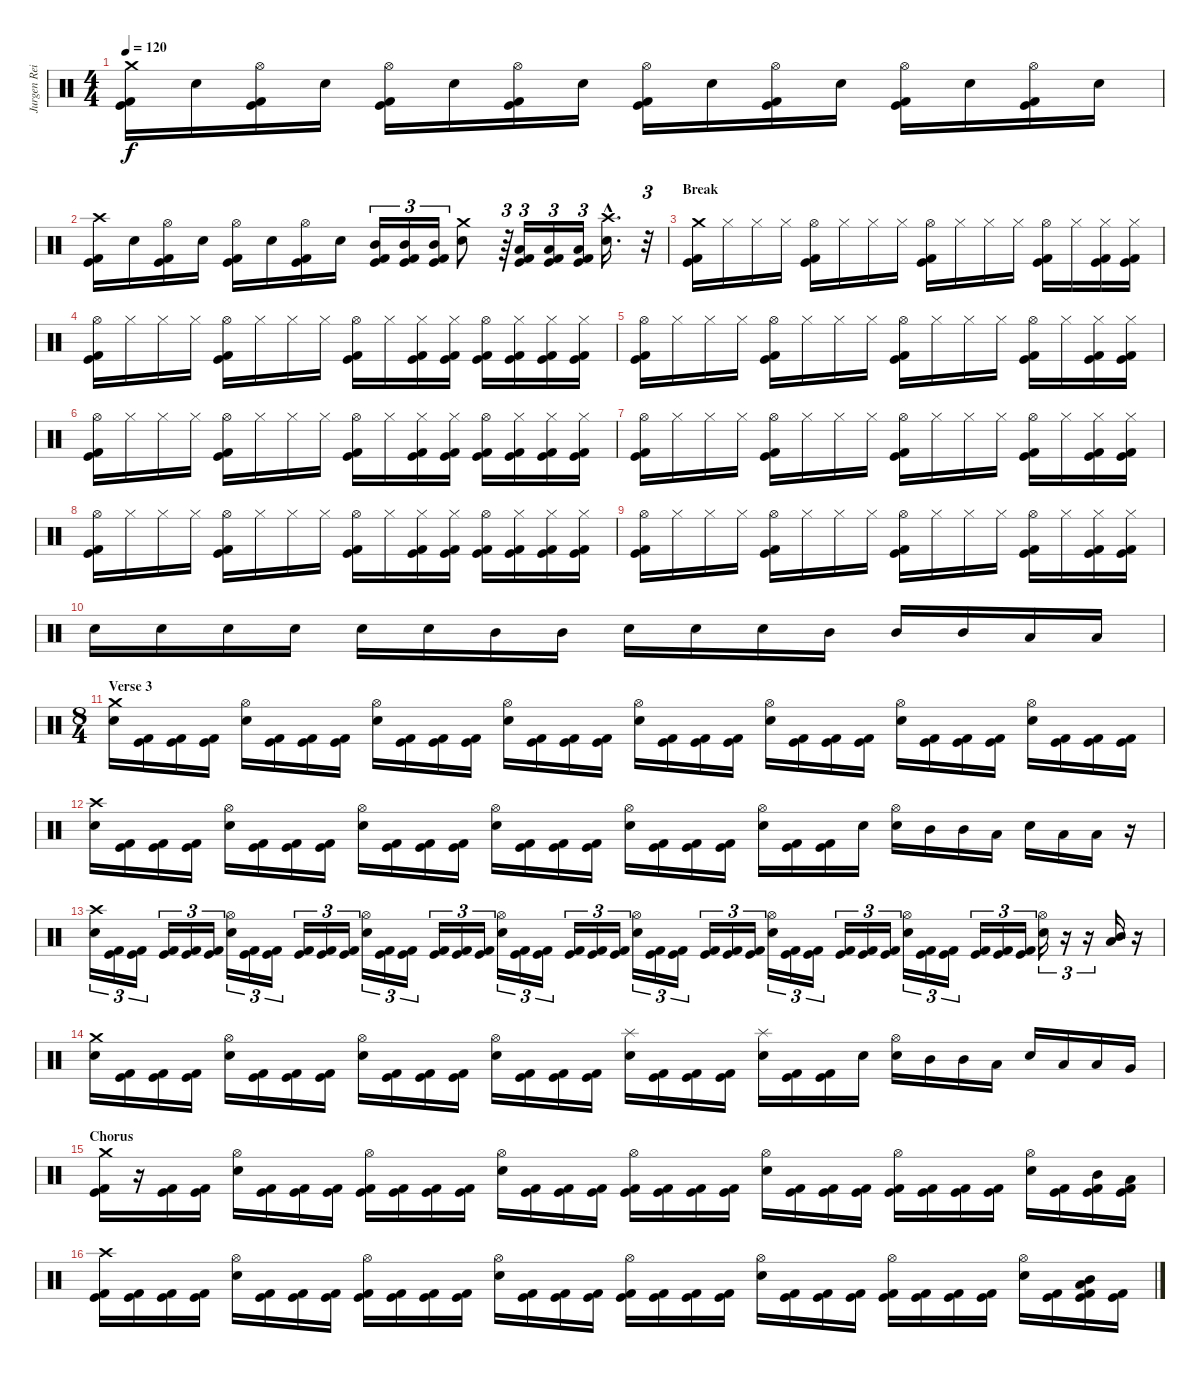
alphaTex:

\track ("Jurgen Reil" "Jurgen Rei") {instrument percussion}
\staff {score}
\articulation defaults
\ts (4 4)
\tempo 120
\clef neutral
\ks c
("Crash medium (hit)" "Kick (hit)" "Kick (hit) 2").16{dy f} "Electric Snare (hit)".16 ("Hi-Hat (open)" "Kick (hit)" "Kick (hit) 2").16 "Electric Snare (hit)".16 ("Hi-Hat (open)" "Kick (hit)" "Kick (hit) 2").16 "Electric Snare (hit)".16 ("Hi-Hat (open)" "Kick (hit)" "Kick (hit) 2").16 "Electric Snare (hit)".16 ("Hi-Hat (open)" "Kick (hit)" "Kick (hit) 2").16 "Electric Snare (hit)".16 ("Hi-Hat (open)" "Kick (hit)" "Kick (hit) 2").16 "Electric Snare (hit)".16 ("Hi-Hat (open)" "Kick (hit)" "Kick (hit) 2").16 "Electric Snare (hit)".16 ("Hi-Hat (open)" "Kick (hit)" "Kick (hit) 2").16 "Electric Snare (hit)".16 |
("Crash high (hit)" "Kick (hit)" "Kick (hit) 2").16 "Electric Snare (hit)".16 ("Hi-Hat (open)" "Kick (hit)" "Kick (hit) 2").16 "Electric Snare (hit)".16 ("Hi-Hat (open)" "Kick (hit)" "Kick (hit) 2").16 "Electric Snare (hit)".16 ("Hi-Hat (open)" "Kick (hit)" "Kick (hit) 2").16 "Electric Snare (hit)".16 ("Mid Tom (hit)" "Kick (hit)" "Kick (hit) 2").16{tu (3 2)} ("Mid Tom (hit)" "Kick (hit)" "Kick (hit) 2").16{tu (3 2)} ("Mid Tom (hit)" "Kick (hit)" "Kick (hit) 2").16{tu (3 2)} ("Crash medium (hit)" "Electric Snare (hit)").8 r.64{tu (3 2)} ("Low Tom (hit)" "Kick (hit)" "Kick (hit) 2").16{tu (3 2)} ("Low Tom (hit)" "Kick (hit)" "Kick (hit) 2").16{tu (3 2)} ("Low Tom (hit)" "Kick (hit)" "Kick (hit) 2").16{tu (3 2)} ("Crash high (hit)"{hac} "Electric Snare (hit)"{hac}).16{d} r.32{tu (3 2)} |
\section ("" "Break")
("Crash medium (hit)" "Kick (hit)" "Kick (hit) 2").16 "Hi-Hat (closed)".16 "Hi-Hat (closed)".16 "Hi-Hat (closed)".16 ("Hi-Hat (open)" "Kick (hit)" "Kick (hit) 2").16 "Hi-Hat (closed)".16 "Hi-Hat (closed)".16 "Hi-Hat (closed)".16 ("Hi-Hat (open)" "Kick (hit)" "Kick (hit) 2").16 "Hi-Hat (closed)".16 "Hi-Hat (closed)".16 "Hi-Hat (closed)".16 ("Hi-Hat (open)" "Kick (hit)" "Kick (hit) 2").16 "Hi-Hat (closed)".16 ("Hi-Hat (closed)" "Kick (hit)" "Kick (hit) 2").16 ("Hi-Hat (closed)" "Kick (hit)" "Kick (hit) 2").16 |
("Hi-Hat (open)" "Kick (hit)" "Kick (hit) 2").16 "Hi-Hat (closed)".16 "Hi-Hat (closed)".16 "Hi-Hat (closed)".16 ("Hi-Hat (open)" "Kick (hit)" "Kick (hit) 2").16 "Hi-Hat (closed)".16 "Hi-Hat (closed)".16 "Hi-Hat (closed)".16 ("Hi-Hat (open)" "Kick (hit)" "Kick (hit) 2").16 "Hi-Hat (closed)".16 ("Hi-Hat (closed)" "Kick (hit)" "Kick (hit) 2").16 ("Hi-Hat (closed)" "Kick (hit)" "Kick (hit) 2").16 ("Hi-Hat (open)" "Kick (hit)" "Kick (hit) 2").16 ("Hi-Hat (closed)" "Kick (hit)" "Kick (hit) 2").16 ("Hi-Hat (closed)" "Kick (hit)" "Kick (hit) 2").16 ("Hi-Hat (closed)" "Kick (hit)" "Kick (hit) 2").16 |
("Hi-Hat (open)" "Kick (hit)" "Kick (hit) 2").16 "Hi-Hat (closed)".16 "Hi-Hat (closed)".16 "Hi-Hat (closed)".16 ("Hi-Hat (open)" "Kick (hit)" "Kick (hit) 2").16 "Hi-Hat (closed)".16 "Hi-Hat (closed)".16 "Hi-Hat (closed)".16 ("Hi-Hat (open)" "Kick (hit)" "Kick (hit) 2").16 "Hi-Hat (closed)".16 "Hi-Hat (closed)".16 "Hi-Hat (closed)".16 ("Hi-Hat (open)" "Kick (hit)" "Kick (hit) 2").16 "Hi-Hat (closed)".16 ("Hi-Hat (closed)" "Kick (hit)" "Kick (hit) 2").16 ("Hi-Hat (closed)" "Kick (hit)" "Kick (hit) 2").16 |
("Hi-Hat (open)" "Kick (hit)" "Kick (hit) 2").16 "Hi-Hat (closed)".16 "Hi-Hat (closed)".16 "Hi-Hat (closed)".16 ("Hi-Hat (open)" "Kick (hit)" "Kick (hit) 2").16 "Hi-Hat (closed)".16 "Hi-Hat (closed)".16 "Hi-Hat (closed)".16 ("Hi-Hat (open)" "Kick (hit)" "Kick (hit) 2").16 "Hi-Hat (closed)".16 ("Hi-Hat (closed)" "Kick (hit)" "Kick (hit) 2").16 ("Hi-Hat (closed)" "Kick (hit)" "Kick (hit) 2").16 ("Hi-Hat (open)" "Kick (hit)" "Kick (hit) 2").16 ("Hi-Hat (closed)" "Kick (hit)" "Kick (hit) 2").16 ("Hi-Hat (closed)" "Kick (hit)" "Kick (hit) 2").16 ("Hi-Hat (closed)" "Kick (hit)" "Kick (hit) 2").16 |
("Hi-Hat (open)" "Kick (hit)" "Kick (hit) 2").16 "Hi-Hat (closed)".16 "Hi-Hat (closed)".16 "Hi-Hat (closed)".16 ("Hi-Hat (open)" "Kick (hit)" "Kick (hit) 2").16 "Hi-Hat (closed)".16 "Hi-Hat (closed)".16 "Hi-Hat (closed)".16 ("Hi-Hat (open)" "Kick (hit)" "Kick (hit) 2").16 "Hi-Hat (closed)".16 "Hi-Hat (closed)".16 "Hi-Hat (closed)".16 ("Hi-Hat (open)" "Kick (hit)" "Kick (hit) 2").16 "Hi-Hat (closed)".16 ("Hi-Hat (closed)" "Kick (hit)" "Kick (hit) 2").16 ("Hi-Hat (closed)" "Kick (hit)" "Kick (hit) 2").16 |
("Hi-Hat (open)" "Kick (hit)" "Kick (hit) 2").16 "Hi-Hat (closed)".16 "Hi-Hat (closed)".16 "Hi-Hat (closed)".16 ("Hi-Hat (open)" "Kick (hit)" "Kick (hit) 2").16 "Hi-Hat (closed)".16 "Hi-Hat (closed)".16 "Hi-Hat (closed)".16 ("Hi-Hat (open)" "Kick (hit)" "Kick (hit) 2").16 "Hi-Hat (closed)".16 ("Hi-Hat (closed)" "Kick (hit)" "Kick (hit) 2").16 ("Hi-Hat (closed)" "Kick (hit)" "Kick (hit) 2").16 ("Hi-Hat (open)" "Kick (hit)" "Kick (hit) 2").16 ("Hi-Hat (closed)" "Kick (hit)" "Kick (hit) 2").16 ("Hi-Hat (closed)" "Kick (hit)" "Kick (hit) 2").16 ("Hi-Hat (closed)" "Kick (hit)" "Kick (hit) 2").16 |
("Hi-Hat (open)" "Kick (hit)" "Kick (hit) 2").16 "Hi-Hat (closed)".16 "Hi-Hat (closed)".16 "Hi-Hat (closed)".16 ("Hi-Hat (open)" "Kick (hit)" "Kick (hit) 2").16 "Hi-Hat (closed)".16 "Hi-Hat (closed)".16 "Hi-Hat (closed)".16 ("Hi-Hat (open)" "Kick (hit)" "Kick (hit) 2").16 "Hi-Hat (closed)".16 "Hi-Hat (closed)".16 "Hi-Hat (closed)".16 ("Hi-Hat (open)" "Kick (hit)" "Kick (hit) 2").16 "Hi-Hat (closed)".16 ("Hi-Hat (closed)" "Kick (hit)" "Kick (hit) 2").16 ("Hi-Hat (closed)" "Kick (hit)" "Kick (hit) 2").16 |
"Electric Snare (hit)".16 "Electric Snare (hit)".16 "Electric Snare (hit)".16 "Electric Snare (hit)".16 "Electric Snare (hit)".16 "Electric Snare (hit)".16 "Mid Tom (hit)".16 "Mid Tom (hit)".16 "Electric Snare (hit)".16 "Electric Snare (hit)".16 "Electric Snare (hit)".16 "Mid Tom (hit)".16 "Mid Tom (hit)".16 "Mid Tom (hit)".16 "Low Tom (hit)".16 "Low Tom (hit)".16 |
\ts (8 4)
\section ("" "Verse 3")
("Crash medium (hit)" "Electric Snare (hit)").16 ("Kick (hit)" "Kick (hit) 2").16 ("Kick (hit)" "Kick (hit) 2").16 ("Kick (hit)" "Kick (hit) 2").16 ("Hi-Hat (open)" "Electric Snare (hit)").16 ("Kick (hit)" "Kick (hit) 2").16 ("Kick (hit)" "Kick (hit) 2").16 ("Kick (hit)" "Kick (hit) 2").16 ("Hi-Hat (open)" "Electric Snare (hit)").16 ("Kick (hit)" "Kick (hit) 2").16 ("Kick (hit)" "Kick (hit) 2").16 ("Kick (hit)" "Kick (hit) 2").16 ("Hi-Hat (open)" "Electric Snare (hit)").16 ("Kick (hit)" "Kick (hit) 2").16 ("Kick (hit)" "Kick (hit) 2").16 ("Kick (hit)" "Kick (hit) 2").16 ("Hi-Hat (open)" "Electric Snare (hit)").16 ("Kick (hit)" "Kick (hit) 2").16 ("Kick (hit)" "Kick (hit) 2").16 ("Kick (hit)" "Kick (hit) 2").16 ("Hi-Hat (open)" "Electric Snare (hit)").16 ("Kick (hit)" "Kick (hit) 2").16 ("Kick (hit)" "Kick (hit) 2").16 ("Kick (hit)" "Kick (hit) 2").16 ("Hi-Hat (open)" "Electric Snare (hit)").16 ("Kick (hit)" "Kick (hit) 2").16 ("Kick (hit)" "Kick (hit) 2").16 ("Kick (hit)" "Kick (hit) 2").16 ("Hi-Hat (open)" "Electric Snare (hit)").16 ("Kick (hit)" "Kick (hit) 2").16 ("Kick (hit)" "Kick (hit) 2").16 ("Kick (hit)" "Kick (hit) 2").16 |
("Crash high (hit)" "Electric Snare (hit)").16 ("Kick (hit)" "Kick (hit) 2").16 ("Kick (hit)" "Kick (hit) 2").16 ("Kick (hit)" "Kick (hit) 2").16 ("Hi-Hat (open)" "Electric Snare (hit)").16 ("Kick (hit)" "Kick (hit) 2").16 ("Kick (hit)" "Kick (hit) 2").16 ("Kick (hit)" "Kick (hit) 2").16 ("Hi-Hat (open)" "Electric Snare (hit)").16 ("Kick (hit)" "Kick (hit) 2").16 ("Kick (hit)" "Kick (hit) 2").16 ("Kick (hit)" "Kick (hit) 2").16 ("Hi-Hat (open)" "Electric Snare (hit)").16 ("Kick (hit)" "Kick (hit) 2").16 ("Kick (hit)" "Kick (hit) 2").16 ("Kick (hit)" "Kick (hit) 2").16 ("Hi-Hat (open)" "Electric Snare (hit)").16 ("Kick (hit)" "Kick (hit) 2").16 ("Kick (hit)" "Kick (hit) 2").16 ("Kick (hit)" "Kick (hit) 2").16 ("Hi-Hat (open)" "Electric Snare (hit)").16 ("Kick (hit)" "Kick (hit) 2").16 ("Kick (hit)" "Kick (hit) 2").16 "Electric Snare (hit)".16 ("Hi-Hat (open)" "Electric Snare (hit)").16 "Mid Tom (hit)".16 "Mid Tom (hit)".16 "Low Tom (hit)".16 "Electric Snare (hit)".16 "Low Tom (hit)".16 "Low Tom (hit)".16 r.16 |
("Crash high (hit)" "Electric Snare (hit)").16{tu (3 2)} ("Kick (hit)" "Kick (hit) 2").16{tu (3 2)} ("Kick (hit)" "Kick (hit) 2").16{tu (3 2)} ("Kick (hit)" "Kick (hit) 2").16{tu (3 2)} ("Kick (hit)" "Kick (hit) 2").16{tu (3 2)} ("Kick (hit)" "Kick (hit) 2").16{tu (3 2)} ("Hi-Hat (open)" "Electric Snare (hit)").16{tu (3 2)} ("Kick (hit)" "Kick (hit) 2").16{tu (3 2)} ("Kick (hit)" "Kick (hit) 2").16{tu (3 2)} ("Kick (hit)" "Kick (hit) 2").16{tu (3 2)} ("Kick (hit)" "Kick (hit) 2").16{tu (3 2)} ("Kick (hit)" "Kick (hit) 2").16{tu (3 2)} ("Hi-Hat (open)" "Electric Snare (hit)").16{tu (3 2)} ("Kick (hit)" "Kick (hit) 2").16{tu (3 2)} ("Kick (hit)" "Kick (hit) 2").16{tu (3 2)} ("Kick (hit)" "Kick (hit) 2").16{tu (3 2)} ("Kick (hit)" "Kick (hit) 2").16{tu (3 2)} ("Kick (hit)" "Kick (hit) 2").16{tu (3 2)} ("Hi-Hat (open)" "Electric Snare (hit)").16{tu (3 2)} ("Kick (hit)" "Kick (hit) 2").16{tu (3 2)} ("Kick (hit)" "Kick (hit) 2").16{tu (3 2)} ("Kick (hit)" "Kick (hit) 2").16{tu (3 2)} ("Kick (hit)" "Kick (hit) 2").16{tu (3 2)} ("Kick (hit)" "Kick (hit) 2").16{tu (3 2)} ("Hi-Hat (open)" "Electric Snare (hit)").16{tu (3 2)} ("Kick (hit)" "Kick (hit) 2").16{tu (3 2)} ("Kick (hit)" "Kick (hit) 2").16{tu (3 2)} ("Kick (hit)" "Kick (hit) 2").16{tu (3 2)} ("Kick (hit)" "Kick (hit) 2").16{tu (3 2)} ("Kick (hit)" "Kick (hit) 2").16{tu (3 2)} ("Hi-Hat (open)" "Electric Snare (hit)").16{tu (3 2)} ("Kick (hit)" "Kick (hit) 2").16{tu (3 2)} ("Kick (hit)" "Kick (hit) 2").16{tu (3 2)} ("Kick (hit)" "Kick (hit) 2").16{tu (3 2)} ("Kick (hit)" "Kick (hit) 2").16{tu (3 2)} ("Kick (hit)" "Kick (hit) 2").16{tu (3 2)} ("Hi-Hat (open)" "Electric Snare (hit)").16{tu (3 2)} ("Kick (hit)" "Kick (hit) 2").16{tu (3 2)} ("Kick (hit)" "Kick (hit) 2").16{tu (3 2)} ("Kick (hit)" "Kick (hit) 2").16{tu (3 2)} ("Kick (hit)" "Kick (hit) 2").16{tu (3 2)} ("Kick (hit)" "Kick (hit) 2").16{tu (3 2)} ("Hi-Hat (open)" "Electric Snare (hit)").16{tu (3 2)} r.16{tu (3 2)} r.16{tu (3 2)} ("Mid Tom (hit)" "Low Tom (hit)").16 r.16 |
("Crash medium (hit)" "Electric Snare (hit)").16 ("Kick (hit)" "Kick (hit) 2").16 ("Kick (hit)" "Kick (hit) 2").16 ("Kick (hit)" "Kick (hit) 2").16 ("Hi-Hat (open)" "Electric Snare (hit)").16 ("Kick (hit)" "Kick (hit) 2").16 ("Kick (hit)" "Kick (hit) 2").16 ("Kick (hit)" "Kick (hit) 2").16 ("Hi-Hat (open)" "Electric Snare (hit)").16 ("Kick (hit)" "Kick (hit) 2").16 ("Kick (hit)" "Kick (hit) 2").16 ("Kick (hit)" "Kick (hit) 2").16 ("Hi-Hat (open)" "Electric Snare (hit)").16 ("Kick (hit)" "Kick (hit) 2").16 ("Kick (hit)" "Kick (hit) 2").16 ("Kick (hit)" "Kick (hit) 2").16 ("Splash (hit)" "Electric Snare (hit)").16 ("Kick (hit)" "Kick (hit) 2").16 ("Kick (hit)" "Kick (hit) 2").16 ("Kick (hit)" "Kick (hit) 2").16 ("Splash (hit)" "Electric Snare (hit)").16 ("Kick (hit)" "Kick (hit) 2").16 ("Kick (hit)" "Kick (hit) 2").16 "Electric Snare (hit)".16 ("Hi-Hat (open)" "Electric Snare (hit)").16 "Mid Tom (hit)".16 "Mid Tom (hit)".16 "Low Tom (hit)".16 "Electric Snare (hit)".16 "Low Tom (hit)".16 "Low Tom (hit)".16 "Very Low Tom (hit)".16 |
\section ("" "Chorus")
("Crash medium (hit)" "Kick (hit)" "Kick (hit) 2").16 r.16 ("Kick (hit)" "Kick (hit) 2").16 ("Kick (hit)" "Kick (hit) 2").16 ("Hi-Hat (open)" "Electric Snare (hit)").16 ("Kick (hit)" "Kick (hit) 2").16 ("Kick (hit)" "Kick (hit) 2").16 ("Kick (hit)" "Kick (hit) 2").16 ("Hi-Hat (open)" "Kick (hit)" "Kick (hit) 2").16 ("Kick (hit)" "Kick (hit) 2").16 ("Kick (hit)" "Kick (hit) 2").16 ("Kick (hit)" "Kick (hit) 2").16 ("Hi-Hat (open)" "Electric Snare (hit)").16 ("Kick (hit)" "Kick (hit) 2").16 ("Kick (hit)" "Kick (hit) 2").16 ("Kick (hit)" "Kick (hit) 2").16 ("Hi-Hat (open)" "Kick (hit)" "Kick (hit) 2").16 ("Kick (hit)" "Kick (hit) 2").16 ("Kick (hit)" "Kick (hit) 2").16 ("Kick (hit)" "Kick (hit) 2").16 ("Hi-Hat (open)" "Electric Snare (hit)").16 ("Kick (hit)" "Kick (hit) 2").16 ("Kick (hit)" "Kick (hit) 2").16 ("Kick (hit)" "Kick (hit) 2").16 ("Hi-Hat (open)" "Kick (hit)" "Kick (hit) 2").16 ("Kick (hit)" "Kick (hit) 2").16 ("Kick (hit)" "Kick (hit) 2").16 ("Kick (hit)" "Kick (hit) 2").16 ("Hi-Hat (open)" "Electric Snare (hit)").16 ("Kick (hit)" "Kick (hit) 2").16 ("Mid Tom (hit)" "Kick (hit)" "Kick (hit) 2").16 ("Low Tom (hit)" "Kick (hit)" "Kick (hit) 2").16 |
("Crash high (hit)" "Kick (hit)" "Kick (hit) 2").16 ("Kick (hit)" "Kick (hit) 2").16 ("Kick (hit)" "Kick (hit) 2").16 ("Kick (hit)" "Kick (hit) 2").16 ("Hi-Hat (open)" "Electric Snare (hit)").16 ("Kick (hit)" "Kick (hit) 2").16 ("Kick (hit)" "Kick (hit) 2").16 ("Kick (hit)" "Kick (hit) 2").16 ("Hi-Hat (open)" "Kick (hit)" "Kick (hit) 2").16 ("Kick (hit)" "Kick (hit) 2").16 ("Kick (hit)" "Kick (hit) 2").16 ("Kick (hit)" "Kick (hit) 2").16 ("Hi-Hat (open)" "Electric Snare (hit)").16 ("Kick (hit)" "Kick (hit) 2").16 ("Kick (hit)" "Kick (hit) 2").16 ("Kick (hit)" "Kick (hit) 2").16 ("Hi-Hat (open)" "Kick (hit)" "Kick (hit) 2").16 ("Kick (hit)" "Kick (hit) 2").16 ("Kick (hit)" "Kick (hit) 2").16 ("Kick (hit)" "Kick (hit) 2").16 ("Hi-Hat (open)" "Electric Snare (hit)").16 ("Kick (hit)" "Kick (hit) 2").16 ("Kick (hit)" "Kick (hit) 2").16 ("Kick (hit)" "Kick (hit) 2").16 ("Hi-Hat (open)" "Kick (hit)" "Kick (hit) 2").16 ("Kick (hit)" "Kick (hit) 2").16 ("Kick (hit)" "Kick (hit) 2").16 ("Kick (hit)" "Kick (hit) 2").16 ("Hi-Hat (open)" "Electric Snare (hit)").16 ("Kick (hit)" "Kick (hit) 2").16 ("Low Tom (hit)" "Mid Tom (hit)" "Kick (hit)" "Kick (hit) 2").16 ("Kick (hit)" "Kick (hit) 2").16
